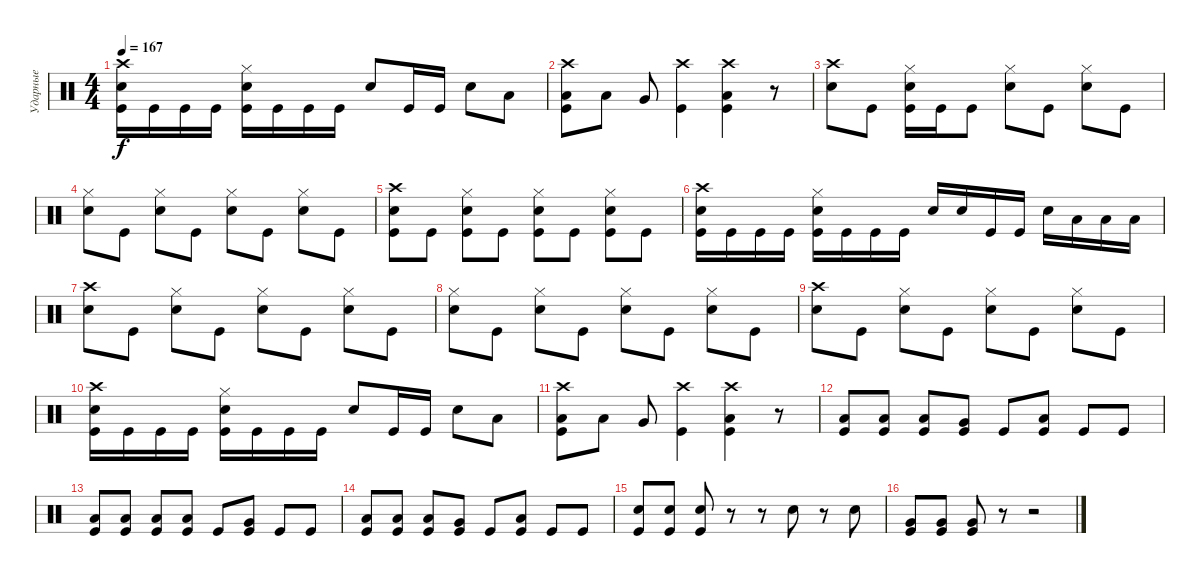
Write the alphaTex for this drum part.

\track ("Ударные" "Ударные") {instrument percussion}
\staff {score}
\articulation defaults
\ts (4 4)
\tempo 167
\clef neutral
\ks c
("Crash high (hit)" "Electric Snare (hit)" "Kick (hit)").16{dy f} "Kick (hit)".16 "Kick (hit)".16 "Kick (hit)".16 ("Hi-Hat (closed)" "Electric Snare (hit)" "Kick (hit)").16 "Kick (hit)".16 "Kick (hit)".16 "Kick (hit)".16 "Electric Snare (hit)".8 "Kick (hit)".16 "Kick (hit)".16 "Electric Snare (hit)".8 "Low Tom (hit)".8 |
("Crash high (hit)" "Low Tom (hit)" "Kick (hit)").8 "Low Tom (hit)".8 "Very Low Tom (hit)".8 ("Crash high (hit)" "Kick (hit)").4 ("Crash high (hit)" "Low Tom (hit)" "Kick (hit)").4 r.8 |
("Crash high (hit)" "Electric Snare (hit)").8 "Kick (hit)".8 ("Hi-Hat (closed)" "Electric Snare (hit)" "Kick (hit)").16 "Kick (hit)".16 "Kick (hit)".8 ("Hi-Hat (closed)" "Electric Snare (hit)").8 "Kick (hit)".8 ("Hi-Hat (closed)" "Electric Snare (hit)").8 "Kick (hit)".8 |
("Hi-Hat (closed)" "Electric Snare (hit)").8 "Kick (hit)".8 ("Hi-Hat (closed)" "Electric Snare (hit)").8 "Kick (hit)".8 ("Hi-Hat (closed)" "Electric Snare (hit)").8 "Kick (hit)".8 ("Hi-Hat (closed)" "Electric Snare (hit)").8 "Kick (hit)".8 |
("Crash high (hit)" "Electric Snare (hit)" "Kick (hit)").8 "Kick (hit)".8 ("Hi-Hat (closed)" "Electric Snare (hit)" "Kick (hit)").8 "Kick (hit)".8 ("Hi-Hat (closed)" "Electric Snare (hit)" "Kick (hit)").8 "Kick (hit)".8 ("Hi-Hat (closed)" "Electric Snare (hit)" "Kick (hit)").8 "Kick (hit)".8 |
("Crash high (hit)" "Electric Snare (hit)" "Kick (hit)").16 "Kick (hit)".16 "Kick (hit)".16 "Kick (hit)".16 ("Hi-Hat (closed)" "Electric Snare (hit)" "Kick (hit)").16 "Kick (hit)".16 "Kick (hit)".16 "Kick (hit)".16 "Electric Snare (hit)".16 "Electric Snare (hit)".16 "Kick (hit)".16 "Kick (hit)".16 "Electric Snare (hit)".16 "Low Tom (hit)".16 "Low Tom (hit)".16 "Low Tom (hit)".16 |
("Crash high (hit)" "Electric Snare (hit)").8 "Kick (hit)".8 ("Hi-Hat (closed)" "Electric Snare (hit)").8 "Kick (hit)".8 ("Hi-Hat (closed)" "Electric Snare (hit)").8 "Kick (hit)".8 ("Hi-Hat (closed)" "Electric Snare (hit)").8 "Kick (hit)".8 |
("Hi-Hat (closed)" "Electric Snare (hit)").8 "Kick (hit)".8 ("Hi-Hat (closed)" "Electric Snare (hit)").8 "Kick (hit)".8 ("Hi-Hat (closed)" "Electric Snare (hit)").8 "Kick (hit)".8 ("Hi-Hat (closed)" "Electric Snare (hit)").8 "Kick (hit)".8 |
("Crash high (hit)" "Electric Snare (hit)").8 "Kick (hit)".8 ("Hi-Hat (closed)" "Electric Snare (hit)").8 "Kick (hit)".8 ("Hi-Hat (closed)" "Electric Snare (hit)").8 "Kick (hit)".8 ("Hi-Hat (closed)" "Electric Snare (hit)").8 "Kick (hit)".8 |
("Crash high (hit)" "Electric Snare (hit)" "Kick (hit)").16 "Kick (hit)".16 "Kick (hit)".16 "Kick (hit)".16 ("Hi-Hat (closed)" "Electric Snare (hit)" "Kick (hit)").16 "Kick (hit)".16 "Kick (hit)".16 "Kick (hit)".16 "Electric Snare (hit)".8 "Kick (hit)".16 "Kick (hit)".16 "Electric Snare (hit)".8 "Low Tom (hit)".8 |
("Crash high (hit)" "Low Tom (hit)" "Kick (hit)").8 "Low Tom (hit)".8 "Very Low Tom (hit)".8 ("Crash high (hit)" "Kick (hit)").4 ("Crash high (hit)" "Low Tom (hit)" "Kick (hit)").4 r.8 |
("Low Tom (hit)" "Kick (hit)").8 ("Low Tom (hit)" "Kick (hit)").8 ("Low Tom (hit)" "Kick (hit)").8 ("Very Low Tom (hit)" "Kick (hit)").8 "Kick (hit)".8 ("Low Tom (hit)" "Kick (hit)").8 "Kick (hit)".8 "Kick (hit)".8 |
("Low Tom (hit)" "Kick (hit)").8 ("Low Tom (hit)" "Kick (hit)").8 ("Low Tom (hit)" "Kick (hit)").8 ("Low Tom (hit)" "Kick (hit)").8 "Kick (hit)".8 ("Very Low Tom (hit)" "Kick (hit)").8 "Kick (hit)".8 "Kick (hit)".8 |
("Low Tom (hit)" "Kick (hit)").8 ("Low Tom (hit)" "Kick (hit)").8 ("Low Tom (hit)" "Kick (hit)").8 ("Very Low Tom (hit)" "Kick (hit)").8 "Kick (hit)".8 ("Low Tom (hit)" "Kick (hit)").8 "Kick (hit)".8 "Kick (hit)".8 |
("Electric Snare (hit)" "Kick (hit)").8 ("Electric Snare (hit)" "Kick (hit)").8 ("Electric Snare (hit)" "Kick (hit)").8 r.8 r.8 "Electric Snare (hit)".8 r.8 "Electric Snare (hit)".8 |
("Very Low Tom (hit)" "Kick (hit)").8 ("Very Low Tom (hit)" "Kick (hit)").8 ("Very Low Tom (hit)" "Kick (hit)").8 r.8 r.2
